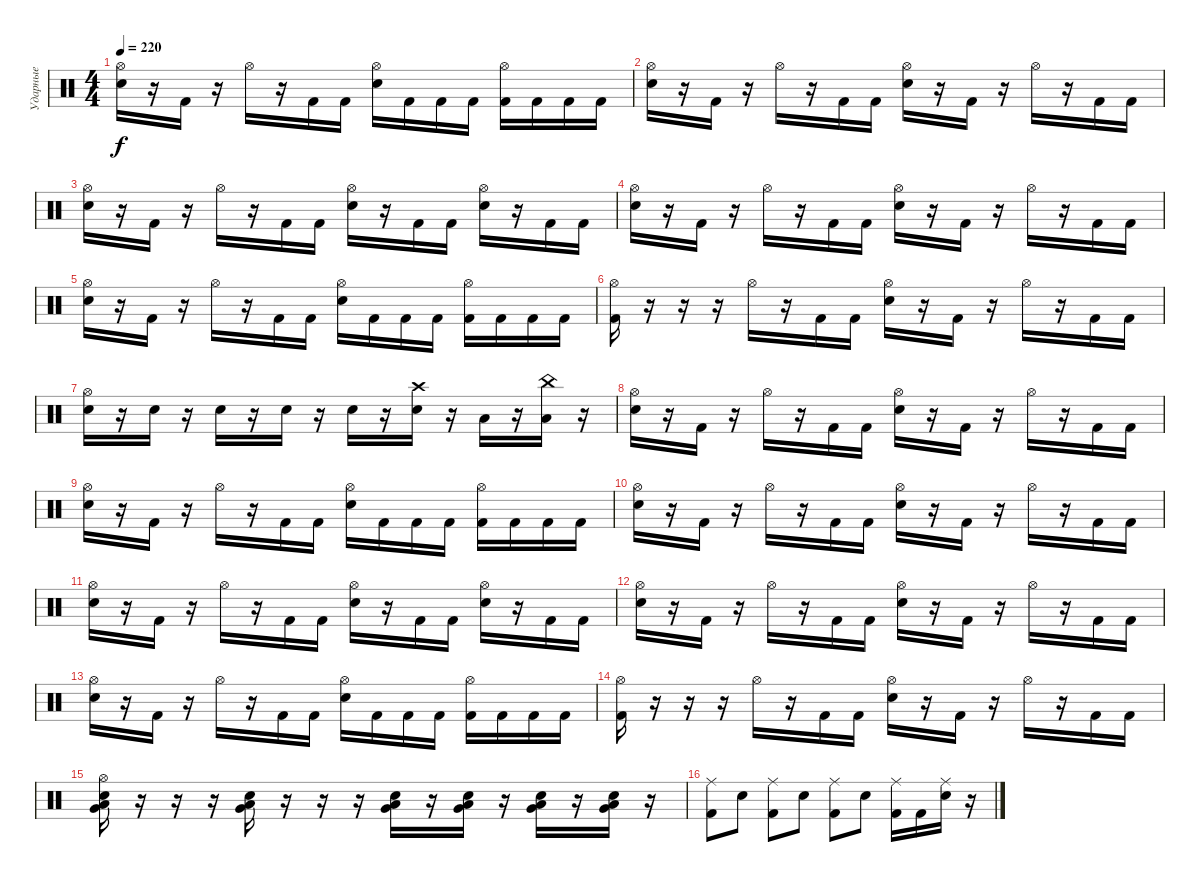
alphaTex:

\track ("Ударные" "Ударные") {instrument percussion}
\staff {score}
\articulation defaults
\ts (4 4)
\tempo 220
\clef neutral
\ks c
("Electric Snare (hit)" "Hi-Hat (open)").16{dy f} r.16 "Kick (hit) 2".16 r.16 "Hi-Hat (open)".16 r.16 "Kick (hit) 2".16 "Kick (hit) 2".16 ("Electric Snare (hit)" "Hi-Hat (open)").16 "Kick (hit) 2".16 "Kick (hit) 2".16 "Kick (hit) 2".16 ("Kick (hit) 2" "Hi-Hat (open)").16 "Kick (hit) 2".16 "Kick (hit) 2".16 "Kick (hit) 2".16 |
("Hi-Hat (open)" "Electric Snare (hit)").16 r.16 "Kick (hit) 2".16 r.16 "Hi-Hat (open)".16 r.16 "Kick (hit) 2".16 "Kick (hit) 2".16 ("Electric Snare (hit)" "Hi-Hat (open)").16 r.16 "Kick (hit) 2".16 r.16 "Hi-Hat (open)".16 r.16 "Kick (hit) 2".16 "Kick (hit) 2".16 |
("Electric Snare (hit)" "Hi-Hat (open)").16 r.16 "Kick (hit) 2".16 r.16 "Hi-Hat (open)".16 r.16 "Kick (hit) 2".16 "Kick (hit) 2".16 ("Electric Snare (hit)" "Hi-Hat (open)").16 r.16 "Kick (hit) 2".16 "Kick (hit) 2".16 ("Electric Snare (hit)" "Hi-Hat (open)").16 r.16 "Kick (hit) 2".16 "Kick (hit) 2".16 |
("Electric Snare (hit)" "Hi-Hat (open)").16 r.16 "Kick (hit) 2".16 r.16 "Hi-Hat (open)".16 r.16 "Kick (hit) 2".16 "Kick (hit) 2".16 ("Electric Snare (hit)" "Hi-Hat (open)").16 r.16 "Kick (hit) 2".16 r.16 "Hi-Hat (open)".16 r.16 "Kick (hit) 2".16 "Kick (hit) 2".16 |
("Electric Snare (hit)" "Hi-Hat (open)").16 r.16 "Kick (hit) 2".16 r.16 "Hi-Hat (open)".16 r.16 "Kick (hit) 2".16 "Kick (hit) 2".16 ("Electric Snare (hit)" "Hi-Hat (open)").16 "Kick (hit) 2".16 "Kick (hit) 2".16 "Kick (hit) 2".16 ("Kick (hit) 2" "Hi-Hat (open)").16 "Kick (hit) 2".16 "Kick (hit) 2".16 "Kick (hit) 2".16 |
("Kick (hit) 2" "Hi-Hat (open)").16 r.16 r.16 r.16 "Hi-Hat (open)".16 r.16 "Kick (hit) 2".16 "Kick (hit) 2".16 ("Electric Snare (hit)" "Hi-Hat (open)").16 r.16 "Kick (hit) 2".16 r.16 "Hi-Hat (open)".16 r.16 "Kick (hit) 2".16 "Kick (hit) 2".16 |
("Electric Snare (hit)" "Hi-Hat (open)").16 r.16 "Electric Snare (hit)".16 r.16 "Electric Snare (hit)".16 r.16 "Snare (hit) 2".16 r.16 "Snare (hit) 2".16 r.16 ("Snare (hit) 2" "Crash high (hit)").16 r.16 "Low Tom (hit)".16 r.16 ("Low Tom (hit)" "China (hit)").16 r.16 |
("Electric Snare (hit)" "Hi-Hat (open)").16 r.16 "Kick (hit) 2".16 r.16 "Hi-Hat (open)".16 r.16 "Kick (hit) 2".16 "Kick (hit) 2".16 ("Electric Snare (hit)" "Hi-Hat (open)").16 r.16 "Kick (hit) 2".16 r.16 "Hi-Hat (open)".16 r.16 "Kick (hit) 2".16 "Kick (hit) 2".16 |
("Electric Snare (hit)" "Hi-Hat (open)").16 r.16 "Kick (hit) 2".16 r.16 "Hi-Hat (open)".16 r.16 "Kick (hit) 2".16 "Kick (hit) 2".16 ("Electric Snare (hit)" "Hi-Hat (open)").16 "Kick (hit) 2".16 "Kick (hit) 2".16 "Kick (hit) 2".16 ("Kick (hit) 2" "Hi-Hat (open)").16 "Kick (hit) 2".16 "Kick (hit) 2".16 "Kick (hit) 2".16 |
("Hi-Hat (open)" "Electric Snare (hit)").16 r.16 "Kick (hit) 2".16 r.16 "Hi-Hat (open)".16 r.16 "Kick (hit) 2".16 "Kick (hit) 2".16 ("Electric Snare (hit)" "Hi-Hat (open)").16 r.16 "Kick (hit) 2".16 r.16 "Hi-Hat (open)".16 r.16 "Kick (hit) 2".16 "Kick (hit) 2".16 |
("Electric Snare (hit)" "Hi-Hat (open)").16 r.16 "Kick (hit) 2".16 r.16 "Hi-Hat (open)".16 r.16 "Kick (hit) 2".16 "Kick (hit) 2".16 ("Electric Snare (hit)" "Hi-Hat (open)").16 r.16 "Kick (hit) 2".16 "Kick (hit) 2".16 ("Electric Snare (hit)" "Hi-Hat (open)").16 r.16 "Kick (hit) 2".16 "Kick (hit) 2".16 |
("Electric Snare (hit)" "Hi-Hat (open)").16 r.16 "Kick (hit) 2".16 r.16 "Hi-Hat (open)".16 r.16 "Kick (hit) 2".16 "Kick (hit) 2".16 ("Electric Snare (hit)" "Hi-Hat (open)").16 r.16 "Kick (hit) 2".16 r.16 "Hi-Hat (open)".16 r.16 "Kick (hit) 2".16 "Kick (hit) 2".16 |
("Electric Snare (hit)" "Hi-Hat (open)").16 r.16 "Kick (hit) 2".16 r.16 "Hi-Hat (open)".16 r.16 "Kick (hit) 2".16 "Kick (hit) 2".16 ("Electric Snare (hit)" "Hi-Hat (open)").16 "Kick (hit) 2".16 "Kick (hit) 2".16 "Kick (hit) 2".16 ("Kick (hit) 2" "Hi-Hat (open)").16 "Kick (hit) 2".16 "Kick (hit) 2".16 "Kick (hit) 2".16 |
("Kick (hit) 2" "Hi-Hat (open)").16 r.16 r.16 r.16 "Hi-Hat (open)".16 r.16 "Kick (hit) 2".16 "Kick (hit) 2".16 ("Electric Snare (hit)" "Hi-Hat (open)").16 r.16 "Kick (hit) 2".16 r.16 "Hi-Hat (open)".16 r.16 "Kick (hit) 2".16 "Kick (hit) 2".16 |
("Electric Snare (hit)" "Hi-Hat (open)" "Very Low Tom (hit)" "Low Floor Tom (hit)").16 r.16 r.16 r.16 ("Electric Snare (hit)" "Low Floor Tom (hit)" "Very Low Tom (hit)").16 r.16 r.16 r.16 ("Electric Snare (hit)" "Very Low Tom (hit)" "Low Floor Tom (hit)").16 r.16 ("Electric Snare (hit)" "Low Floor Tom (hit)" "Very Low Tom (hit)").16 r.16 ("Electric Snare (hit)" "Low Floor Tom (hit)" "Very Low Tom (hit)").16 r.16 ("Very Low Tom (hit)" "Low Floor Tom (hit)" "Electric Snare (hit)").16 r.16 |
("Ride (middle)" "Kick (hit) 2").8 "Electric Snare (hit)".8 ("Kick (hit) 2" "Ride (middle)").8 "Electric Snare (hit)".8 ("Ride (middle)" "Kick (hit) 2").8 "Electric Snare (hit)".8 ("Ride (middle)" "Kick (hit) 2").16 "Kick (hit) 2".16 ("Ride (middle)" "Electric Snare (hit)").16 r.16
